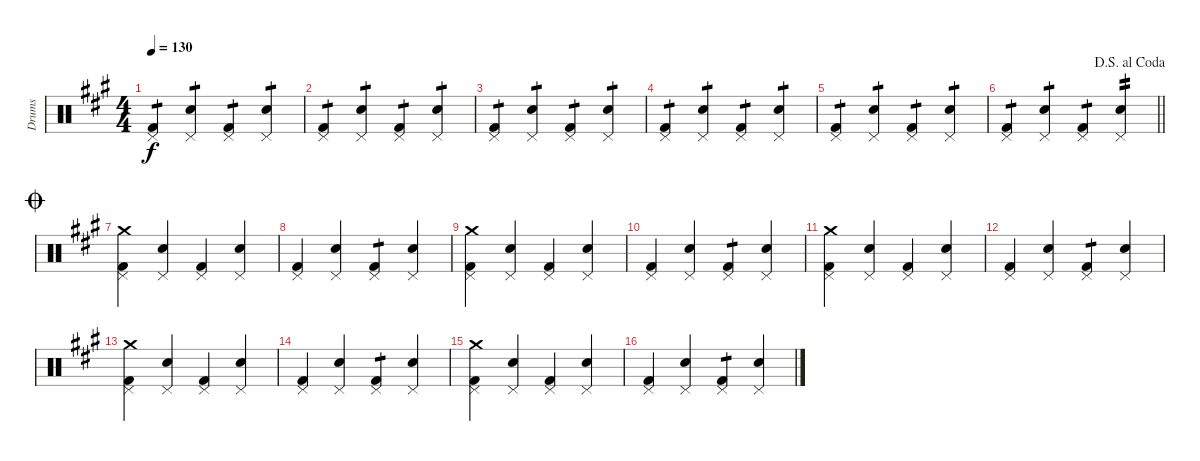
\track ("Drums" "Drums") {instrument percussion}
\staff {score}
\articulation defaults
\ts (4 4)
\tempo 130
\clef neutral
\ks a
("Kick (hit) 2" "Pedal Hi-Hat (hit)").4{tp 1 dy f} ("Snare (hit) 2" "Pedal Hi-Hat (hit)").4{tp 1} ("Kick (hit) 2" "Pedal Hi-Hat (hit)").4{tp 1} ("Snare (hit) 2" "Pedal Hi-Hat (hit)").4{tp 1} |
("Kick (hit) 2" "Pedal Hi-Hat (hit)").4{tp 1} ("Snare (hit) 2" "Pedal Hi-Hat (hit)").4{tp 1} ("Kick (hit) 2" "Pedal Hi-Hat (hit)").4{tp 1} ("Snare (hit) 2" "Pedal Hi-Hat (hit)").4{tp 1} |
("Kick (hit) 2" "Pedal Hi-Hat (hit)").4{tp 1} ("Snare (hit) 2" "Pedal Hi-Hat (hit)").4{tp 1} ("Kick (hit) 2" "Pedal Hi-Hat (hit)").4{tp 1} ("Snare (hit) 2" "Pedal Hi-Hat (hit)").4{tp 1} |
("Kick (hit) 2" "Pedal Hi-Hat (hit)").4{tp 1} ("Snare (hit) 2" "Pedal Hi-Hat (hit)").4{tp 1} ("Kick (hit) 2" "Pedal Hi-Hat (hit)").4{tp 1} ("Snare (hit) 2" "Pedal Hi-Hat (hit)").4{tp 1} |
("Kick (hit) 2" "Pedal Hi-Hat (hit)").4{tp 1} ("Snare (hit) 2" "Pedal Hi-Hat (hit)").4{tp 1} ("Kick (hit) 2" "Pedal Hi-Hat (hit)").4{tp 1} ("Snare (hit) 2" "Pedal Hi-Hat (hit)").4{tp 1} |
\jump dalsegnoalcoda
\barLineRight lightlight
("Kick (hit) 2" "Pedal Hi-Hat (hit)").4{tp 1} ("Snare (hit) 2" "Pedal Hi-Hat (hit)").4{tp 1} ("Kick (hit) 2" "Pedal Hi-Hat (hit)").4{tp 1} ("Snare (hit) 2" "Pedal Hi-Hat (hit)").4{tp 2} |
\jump coda
("Kick (hit) 2" "Pedal Hi-Hat (hit)" "Crash medium (hit)").4 ("Snare (hit) 2" "Pedal Hi-Hat (hit)").4 ("Kick (hit) 2" "Pedal Hi-Hat (hit)").4 ("Snare (hit) 2" "Pedal Hi-Hat (hit)").4 |
("Kick (hit) 2" "Pedal Hi-Hat (hit)").4 ("Snare (hit) 2" "Pedal Hi-Hat (hit)").4 ("Kick (hit) 2" "Pedal Hi-Hat (hit)").4{tp 1} ("Snare (hit) 2" "Pedal Hi-Hat (hit)").4 |
("Kick (hit) 2" "Pedal Hi-Hat (hit)" "Crash medium (hit)").4 ("Snare (hit) 2" "Pedal Hi-Hat (hit)").4 ("Kick (hit) 2" "Pedal Hi-Hat (hit)").4 ("Snare (hit) 2" "Pedal Hi-Hat (hit)").4 |
("Kick (hit) 2" "Pedal Hi-Hat (hit)").4 ("Snare (hit) 2" "Pedal Hi-Hat (hit)").4 ("Kick (hit) 2" "Pedal Hi-Hat (hit)").4{tp 1} ("Snare (hit) 2" "Pedal Hi-Hat (hit)").4 |
("Kick (hit) 2" "Pedal Hi-Hat (hit)" "Crash medium (hit)").4 ("Snare (hit) 2" "Pedal Hi-Hat (hit)").4 ("Kick (hit) 2" "Pedal Hi-Hat (hit)").4 ("Snare (hit) 2" "Pedal Hi-Hat (hit)").4 |
("Kick (hit) 2" "Pedal Hi-Hat (hit)").4 ("Snare (hit) 2" "Pedal Hi-Hat (hit)").4 ("Kick (hit) 2" "Pedal Hi-Hat (hit)").4{tp 1} ("Snare (hit) 2" "Pedal Hi-Hat (hit)").4 |
("Kick (hit) 2" "Pedal Hi-Hat (hit)" "Crash medium (hit)").4 ("Snare (hit) 2" "Pedal Hi-Hat (hit)").4 ("Kick (hit) 2" "Pedal Hi-Hat (hit)").4 ("Snare (hit) 2" "Pedal Hi-Hat (hit)").4 |
("Kick (hit) 2" "Pedal Hi-Hat (hit)").4 ("Snare (hit) 2" "Pedal Hi-Hat (hit)").4 ("Kick (hit) 2" "Pedal Hi-Hat (hit)").4{tp 1} ("Snare (hit) 2" "Pedal Hi-Hat (hit)").4 |
("Kick (hit) 2" "Pedal Hi-Hat (hit)" "Crash medium (hit)").4 ("Snare (hit) 2" "Pedal Hi-Hat (hit)").4 ("Kick (hit) 2" "Pedal Hi-Hat (hit)").4 ("Snare (hit) 2" "Pedal Hi-Hat (hit)").4 |
("Kick (hit) 2" "Pedal Hi-Hat (hit)").4 ("Snare (hit) 2" "Pedal Hi-Hat (hit)").4 ("Kick (hit) 2" "Pedal Hi-Hat (hit)").4{tp 1} ("Snare (hit) 2" "Pedal Hi-Hat (hit)").4
